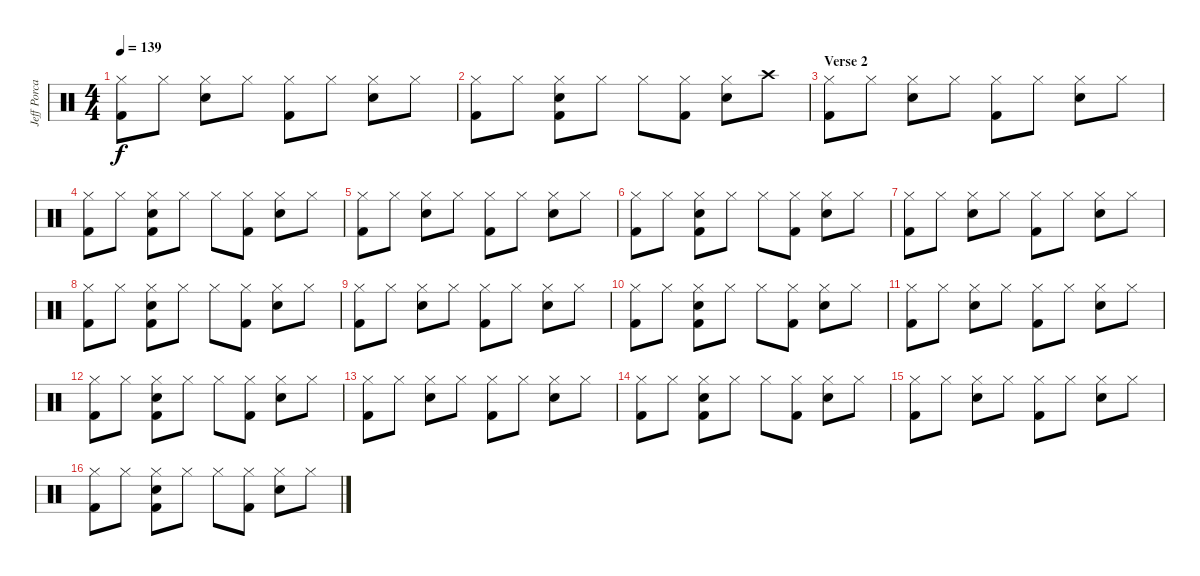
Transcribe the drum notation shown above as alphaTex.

\track ("Jeff Porcaro (Percussion)" "Jeff Porca") {instrument percussion}
\staff {score}
\articulation defaults
\ts (4 4)
\tempo 139
\clef neutral
\ks c
("Hi-Hat (closed)" "Kick (hit) 2").8{dy f} "Hi-Hat (closed)".8 ("Hi-Hat (closed)" "Snare (hit) 2").8 "Hi-Hat (closed)".8 ("Hi-Hat (closed)" "Kick (hit) 2").8 "Hi-Hat (closed)".8 ("Hi-Hat (closed)" "Snare (hit) 2").8 "Hi-Hat (closed)".8 |
("Hi-Hat (closed)" "Kick (hit) 2").8 "Hi-Hat (closed)".8 ("Hi-Hat (closed)" "Snare (hit) 2" "Kick (hit) 2").8 "Hi-Hat (closed)".8 "Hi-Hat (closed)".8 ("Hi-Hat (closed)" "Kick (hit) 2").8 ("Hi-Hat (closed)" "Snare (hit) 2").8 "Crash high (hit)".8 |
\section ("" "Verse 2")
("Hi-Hat (closed)" "Kick (hit) 2").8 "Hi-Hat (closed)".8 ("Hi-Hat (closed)" "Snare (hit) 2").8 "Hi-Hat (closed)".8 ("Hi-Hat (closed)" "Kick (hit) 2").8 "Hi-Hat (closed)".8 ("Hi-Hat (closed)" "Snare (hit) 2").8 "Hi-Hat (closed)".8 |
("Hi-Hat (closed)" "Kick (hit) 2").8 "Hi-Hat (closed)".8 ("Hi-Hat (closed)" "Snare (hit) 2" "Kick (hit) 2").8 "Hi-Hat (closed)".8 "Hi-Hat (closed)".8 ("Hi-Hat (closed)" "Kick (hit) 2").8 ("Hi-Hat (closed)" "Snare (hit) 2").8 "Hi-Hat (closed)".8 |
("Hi-Hat (closed)" "Kick (hit) 2").8 "Hi-Hat (closed)".8 ("Hi-Hat (closed)" "Snare (hit) 2").8 "Hi-Hat (closed)".8 ("Hi-Hat (closed)" "Kick (hit) 2").8 "Hi-Hat (closed)".8 ("Hi-Hat (closed)" "Snare (hit) 2").8 "Hi-Hat (closed)".8 |
("Hi-Hat (closed)" "Kick (hit) 2").8 "Hi-Hat (closed)".8 ("Hi-Hat (closed)" "Snare (hit) 2" "Kick (hit) 2").8 "Hi-Hat (closed)".8 "Hi-Hat (closed)".8 ("Hi-Hat (closed)" "Kick (hit) 2").8 ("Hi-Hat (closed)" "Snare (hit) 2").8 "Hi-Hat (closed)".8 |
("Hi-Hat (closed)" "Kick (hit) 2").8 "Hi-Hat (closed)".8 ("Hi-Hat (closed)" "Snare (hit) 2").8 "Hi-Hat (closed)".8 ("Hi-Hat (closed)" "Kick (hit) 2").8 "Hi-Hat (closed)".8 ("Hi-Hat (closed)" "Snare (hit) 2").8 "Hi-Hat (closed)".8 |
("Hi-Hat (closed)" "Kick (hit) 2").8 "Hi-Hat (closed)".8 ("Hi-Hat (closed)" "Snare (hit) 2" "Kick (hit) 2").8 "Hi-Hat (closed)".8 "Hi-Hat (closed)".8 ("Hi-Hat (closed)" "Kick (hit) 2").8 ("Hi-Hat (closed)" "Snare (hit) 2").8 "Hi-Hat (closed)".8 |
("Hi-Hat (closed)" "Kick (hit) 2").8 "Hi-Hat (closed)".8 ("Hi-Hat (closed)" "Snare (hit) 2").8 "Hi-Hat (closed)".8 ("Hi-Hat (closed)" "Kick (hit) 2").8 "Hi-Hat (closed)".8 ("Hi-Hat (closed)" "Snare (hit) 2").8 "Hi-Hat (closed)".8 |
("Hi-Hat (closed)" "Kick (hit) 2").8 "Hi-Hat (closed)".8 ("Hi-Hat (closed)" "Snare (hit) 2" "Kick (hit) 2").8 "Hi-Hat (closed)".8 "Hi-Hat (closed)".8 ("Hi-Hat (closed)" "Kick (hit) 2").8 ("Hi-Hat (closed)" "Snare (hit) 2").8 "Hi-Hat (closed)".8 |
("Hi-Hat (closed)" "Kick (hit) 2").8 "Hi-Hat (closed)".8 ("Hi-Hat (closed)" "Snare (hit) 2").8 "Hi-Hat (closed)".8 ("Hi-Hat (closed)" "Kick (hit) 2").8 "Hi-Hat (closed)".8 ("Hi-Hat (closed)" "Snare (hit) 2").8 "Hi-Hat (closed)".8 |
("Hi-Hat (closed)" "Kick (hit) 2").8 "Hi-Hat (closed)".8 ("Hi-Hat (closed)" "Snare (hit) 2" "Kick (hit) 2").8 "Hi-Hat (closed)".8 "Hi-Hat (closed)".8 ("Hi-Hat (closed)" "Kick (hit) 2").8 ("Hi-Hat (closed)" "Snare (hit) 2").8 "Hi-Hat (closed)".8 |
("Hi-Hat (closed)" "Kick (hit) 2").8 "Hi-Hat (closed)".8 ("Hi-Hat (closed)" "Snare (hit) 2").8 "Hi-Hat (closed)".8 ("Hi-Hat (closed)" "Kick (hit) 2").8 "Hi-Hat (closed)".8 ("Hi-Hat (closed)" "Snare (hit) 2").8 "Hi-Hat (closed)".8 |
("Hi-Hat (closed)" "Kick (hit) 2").8 "Hi-Hat (closed)".8 ("Hi-Hat (closed)" "Snare (hit) 2" "Kick (hit) 2").8 "Hi-Hat (closed)".8 "Hi-Hat (closed)".8 ("Hi-Hat (closed)" "Kick (hit) 2").8 ("Hi-Hat (closed)" "Snare (hit) 2").8 "Hi-Hat (closed)".8 |
("Hi-Hat (closed)" "Kick (hit) 2").8 "Hi-Hat (closed)".8 ("Hi-Hat (closed)" "Snare (hit) 2").8 "Hi-Hat (closed)".8 ("Hi-Hat (closed)" "Kick (hit) 2").8 "Hi-Hat (closed)".8 ("Hi-Hat (closed)" "Snare (hit) 2").8 "Hi-Hat (closed)".8 |
("Hi-Hat (closed)" "Kick (hit) 2").8 "Hi-Hat (closed)".8 ("Hi-Hat (closed)" "Snare (hit) 2" "Kick (hit) 2").8 "Hi-Hat (closed)".8 "Hi-Hat (closed)".8 ("Hi-Hat (closed)" "Kick (hit) 2").8 ("Hi-Hat (closed)" "Snare (hit) 2").8 "Hi-Hat (closed)".8
